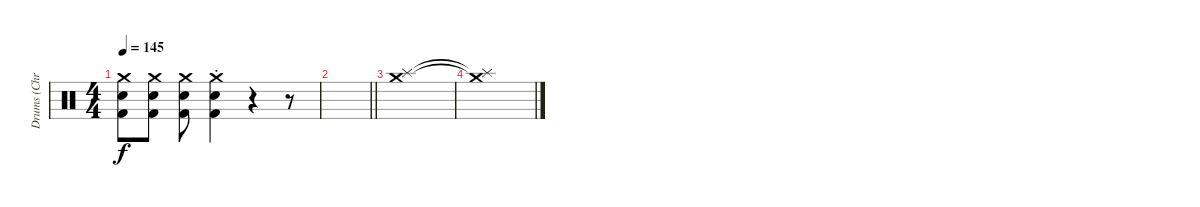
\track ("Drums (Chris)" "Drums (Chr") {instrument percussion}
\staff {score}
\articulation defaults
\ts (4 4)
\tempo 145
\clef neutral
\ks c
("Crash medium (hit)" "Electric Snare (hit)" "Kick (hit) 2").8{dy f} ("Crash medium (hit)" "Electric Snare (hit)" "Kick (hit) 2").8 ("Crash medium (hit)" "Electric Snare (hit)" "Kick (hit) 2").8 ("Crash medium (hit)" "Electric Snare (hit)" "Kick (hit) 2"{st}).4 r.4 r.8 |
\barLineRight lightlight
|
("Crash medium (hit)" "Splash (hit)").1 |
("Crash medium (hit)"{t} "Splash (hit)"{t}).1
